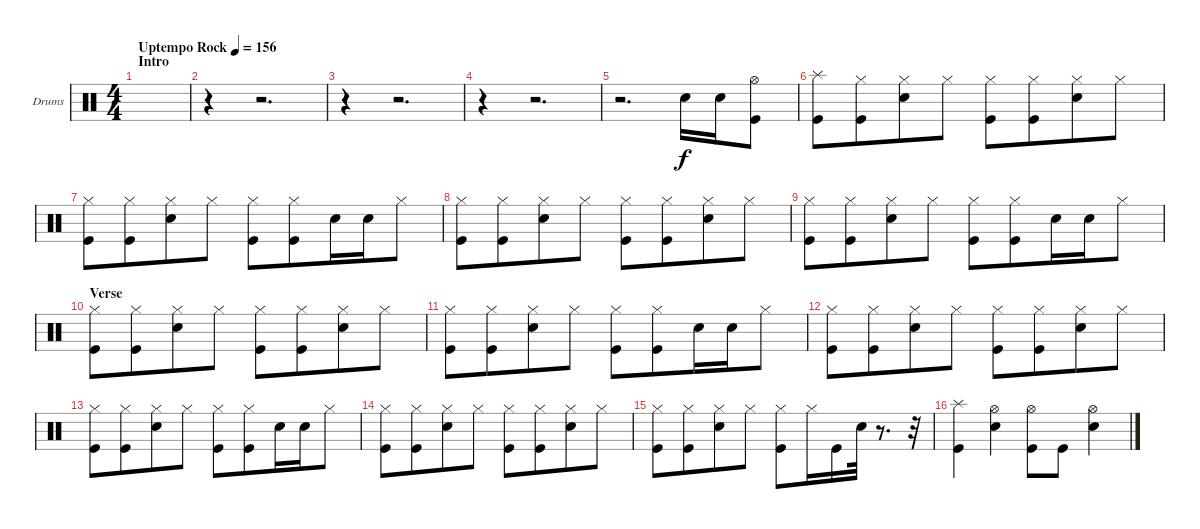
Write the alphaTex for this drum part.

\bracketExtendMode groupsimilarinstruments
\firstSystemTrackNameOrientation horizontal
\otherSystemsTrackNameOrientation horizontal
\track ("Drumkit" "Drums") {instrument percussion}
\staff {score}
\articulation defaults
\ts (4 4)
\beaming (8 4 4)
\section ("" "Intro")
\tempo (156 "Uptempo Rock")
\clef neutral
\scale
1.05675
\ks c
|
\scale
0.943253 r.4 r.2{d} |
\scale
1.02648 r.4 r.2{d} |
\scale
0.973518 r.4 r.2{d} |
\scale
1.02648 r.2{d} "Snare (hit) 2".16 "Snare (hit) 2".16 ("Hi-Hat (open)" "Kick (hit)").8{dy f} |
\scale
0.973518 ("Splash (hit)" "Kick (hit)").8 ("Hi-Hat (closed)" "Kick (hit)").8 ("Hi-Hat (closed)" "Snare (hit) 2").8 "Hi-Hat (closed)".8 ("Hi-Hat (closed)" "Kick (hit)").8 ("Hi-Hat (closed)" "Kick (hit)").8 ("Hi-Hat (closed)" "Snare (hit) 2").8 "Hi-Hat (closed)".8 |
\scale
1.02648 ("Hi-Hat (closed)" "Kick (hit)").8 ("Hi-Hat (closed)" "Kick (hit)").8 ("Hi-Hat (closed)" "Snare (hit) 2").8 "Hi-Hat (closed)".8 ("Hi-Hat (closed)" "Kick (hit)").8 ("Hi-Hat (closed)" "Kick (hit)").8 "Snare (hit) 2".16 "Snare (hit) 2".16 "Hi-Hat (closed)".8 |
\scale
0.973518 ("Hi-Hat (closed)" "Kick (hit)").8 ("Hi-Hat (closed)" "Kick (hit)").8 ("Hi-Hat (closed)" "Snare (hit) 2").8 "Hi-Hat (closed)".8 ("Hi-Hat (closed)" "Kick (hit)").8 ("Hi-Hat (closed)" "Kick (hit)").8 ("Hi-Hat (closed)" "Snare (hit) 2").8 "Hi-Hat (closed)".8 |
\scale
1.02648 ("Hi-Hat (closed)" "Kick (hit)").8 ("Hi-Hat (closed)" "Kick (hit)").8 ("Hi-Hat (closed)" "Snare (hit) 2").8 "Hi-Hat (closed)".8 ("Hi-Hat (closed)" "Kick (hit)").8 ("Hi-Hat (closed)" "Kick (hit)").8 "Snare (hit) 2".16 "Snare (hit) 2".16 "Hi-Hat (closed)".8 |
\section ("" "Verse")
\scale
0.973518 ("Hi-Hat (closed)" "Kick (hit)").8 ("Hi-Hat (closed)" "Kick (hit)").8 ("Hi-Hat (closed)" "Snare (hit) 2").8 "Hi-Hat (closed)".8 ("Hi-Hat (closed)" "Kick (hit)").8 ("Hi-Hat (closed)" "Kick (hit)").8 ("Hi-Hat (closed)" "Snare (hit) 2").8 "Hi-Hat (closed)".8 |
\scale
1.02648 ("Hi-Hat (closed)" "Kick (hit)").8 ("Hi-Hat (closed)" "Kick (hit)").8 ("Hi-Hat (closed)" "Snare (hit) 2").8 "Hi-Hat (closed)".8 ("Hi-Hat (closed)" "Kick (hit)").8 ("Hi-Hat (closed)" "Kick (hit)").8 "Snare (hit) 2".16 "Snare (hit) 2".16 "Hi-Hat (closed)".8 |
\scale
0.973518 ("Hi-Hat (closed)" "Kick (hit)").8 ("Hi-Hat (closed)" "Kick (hit)").8 ("Hi-Hat (closed)" "Snare (hit) 2").8 "Hi-Hat (closed)".8 ("Hi-Hat (closed)" "Kick (hit)").8 ("Hi-Hat (closed)" "Kick (hit)").8 ("Hi-Hat (closed)" "Snare (hit) 2").8 "Hi-Hat (closed)".8 |
\scale
1.02648 ("Hi-Hat (closed)" "Kick (hit)").8 ("Hi-Hat (closed)" "Kick (hit)").8 ("Hi-Hat (closed)" "Snare (hit) 2").8 "Hi-Hat (closed)".8 ("Hi-Hat (closed)" "Kick (hit)").8 ("Hi-Hat (closed)" "Kick (hit)").8 "Snare (hit) 2".16 "Snare (hit) 2".16 "Hi-Hat (closed)".8 |
\scale
0.973518 ("Hi-Hat (closed)" "Kick (hit)").8 ("Hi-Hat (closed)" "Kick (hit)").8 ("Hi-Hat (closed)" "Snare (hit) 2").8 "Hi-Hat (closed)".8 ("Hi-Hat (closed)" "Kick (hit)").8 ("Hi-Hat (closed)" "Kick (hit)").8 ("Hi-Hat (closed)" "Snare (hit) 2").8 "Hi-Hat (closed)".8 |
\scale
1.02648 ("Hi-Hat (closed)" "Kick (hit)").8 ("Hi-Hat (closed)" "Kick (hit)").8 ("Hi-Hat (closed)" "Snare (hit) 2").8 "Hi-Hat (closed)".8 ("Hi-Hat (closed)" "Kick (hit)").8 "Hi-Hat (closed)".16 "Kick (hit)".16 "Snare (hit) 2".32 r.8{d} r.32 |
\scale
0.973518 ("Splash (hit)" "Kick (hit)").4 ("Hi-Hat (open)" "Snare (hit) 2").4 ("Hi-Hat (open)" "Kick (hit)").8 "Kick (hit)".8 ("Hi-Hat (open)" "Snare (hit) 2").4
